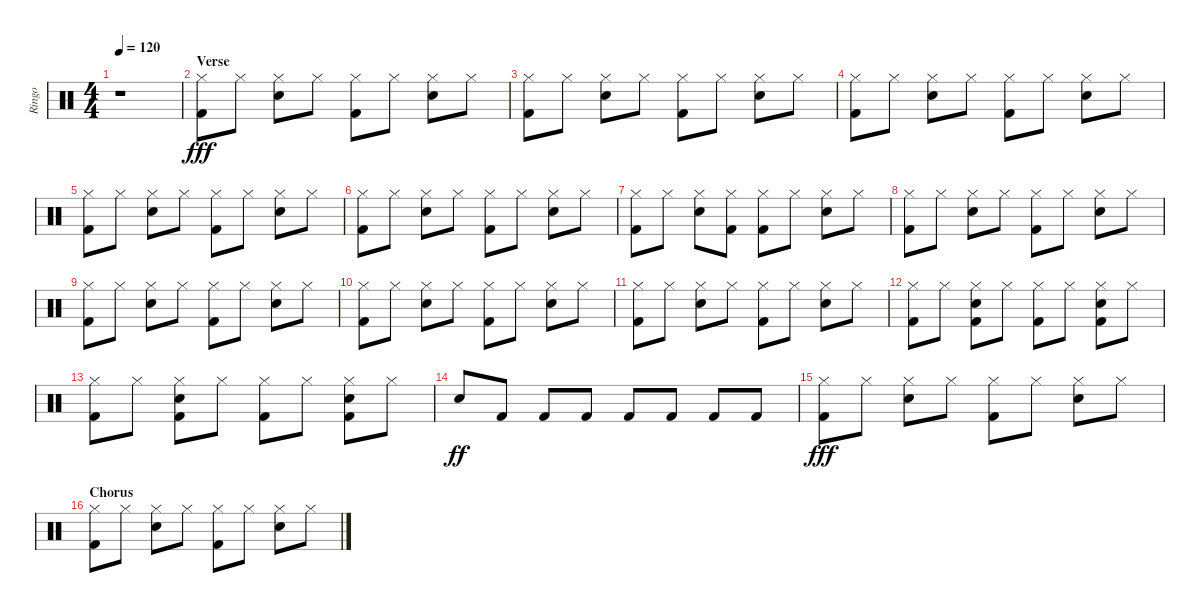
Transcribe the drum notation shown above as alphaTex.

\track ("Ringo" "Ringo") {instrument percussion}
\staff {score}
\articulation defaults
\ts (4 4)
\tempo 120
\clef neutral
\ks c
r.1{dy fff volume 13 balance 8} |
\section ("" "Verse")
("Hi-Hat (closed)" "Kick (hit) 2").8 "Hi-Hat (closed)".8 ("Hi-Hat (closed)" "Snare (hit) 2").8 "Hi-Hat (closed)".8 ("Hi-Hat (closed)" "Kick (hit) 2").8 "Hi-Hat (closed)".8 ("Hi-Hat (closed)" "Snare (hit) 2").8 "Hi-Hat (closed)".8 |
("Hi-Hat (closed)" "Kick (hit) 2").8 "Hi-Hat (closed)".8 ("Hi-Hat (closed)" "Snare (hit) 2").8 "Hi-Hat (closed)".8 ("Hi-Hat (closed)" "Kick (hit) 2").8 "Hi-Hat (closed)".8 ("Hi-Hat (closed)" "Snare (hit) 2").8 "Hi-Hat (closed)".8 |
("Hi-Hat (closed)" "Kick (hit) 2").8 "Hi-Hat (closed)".8 ("Hi-Hat (closed)" "Snare (hit) 2").8 "Hi-Hat (closed)".8 ("Hi-Hat (closed)" "Kick (hit) 2").8 "Hi-Hat (closed)".8 ("Hi-Hat (closed)" "Snare (hit) 2").8 "Hi-Hat (closed)".8 |
("Hi-Hat (closed)" "Kick (hit) 2").8 "Hi-Hat (closed)".8 ("Hi-Hat (closed)" "Snare (hit) 2").8 "Hi-Hat (closed)".8 ("Hi-Hat (closed)" "Kick (hit) 2").8 "Hi-Hat (closed)".8 ("Hi-Hat (closed)" "Snare (hit) 2").8 "Hi-Hat (closed)".8 |
("Hi-Hat (closed)" "Kick (hit) 2").8 "Hi-Hat (closed)".8 ("Hi-Hat (closed)" "Snare (hit) 2").8 "Hi-Hat (closed)".8 ("Hi-Hat (closed)" "Kick (hit) 2").8 "Hi-Hat (closed)".8 ("Hi-Hat (closed)" "Snare (hit) 2").8 "Hi-Hat (closed)".8 |
("Hi-Hat (closed)" "Kick (hit) 2").8 "Hi-Hat (closed)".8 ("Hi-Hat (closed)" "Snare (hit) 2").8 ("Hi-Hat (closed)" "Kick (hit) 2").8 ("Hi-Hat (closed)" "Kick (hit) 2").8 "Hi-Hat (closed)".8 ("Hi-Hat (closed)" "Snare (hit) 2").8 "Hi-Hat (closed)".8 |
("Hi-Hat (closed)" "Kick (hit) 2").8 "Hi-Hat (closed)".8 ("Hi-Hat (closed)" "Snare (hit) 2").8 "Hi-Hat (closed)".8 ("Hi-Hat (closed)" "Kick (hit) 2").8 "Hi-Hat (closed)".8 ("Hi-Hat (closed)" "Snare (hit) 2").8 "Hi-Hat (closed)".8 |
("Hi-Hat (closed)" "Kick (hit) 2").8 "Hi-Hat (closed)".8 ("Hi-Hat (closed)" "Snare (hit) 2").8 "Hi-Hat (closed)".8 ("Hi-Hat (closed)" "Kick (hit) 2").8 "Hi-Hat (closed)".8 ("Hi-Hat (closed)" "Snare (hit) 2").8 "Hi-Hat (closed)".8 |
("Hi-Hat (closed)" "Kick (hit) 2").8 "Hi-Hat (closed)".8 ("Hi-Hat (closed)" "Snare (hit) 2").8 "Hi-Hat (closed)".8 ("Hi-Hat (closed)" "Kick (hit) 2").8 "Hi-Hat (closed)".8 ("Hi-Hat (closed)" "Snare (hit) 2").8 "Hi-Hat (closed)".8 |
("Hi-Hat (closed)" "Kick (hit) 2").8 "Hi-Hat (closed)".8 ("Hi-Hat (closed)" "Snare (hit) 2").8 "Hi-Hat (closed)".8 ("Hi-Hat (closed)" "Kick (hit) 2").8 "Hi-Hat (closed)".8 ("Hi-Hat (closed)" "Snare (hit) 2").8 "Hi-Hat (closed)".8 |
("Hi-Hat (closed)" "Kick (hit) 2").8 "Hi-Hat (closed)".8 ("Hi-Hat (closed)" "Snare (hit) 2" "Kick (hit) 2").8 "Hi-Hat (closed)".8 ("Hi-Hat (closed)" "Kick (hit) 2").8 "Hi-Hat (closed)".8 ("Hi-Hat (closed)" "Snare (hit) 2" "Kick (hit) 2").8 "Hi-Hat (closed)".8 |
("Hi-Hat (closed)" "Kick (hit) 2").8 "Hi-Hat (closed)".8 ("Hi-Hat (closed)" "Snare (hit) 2" "Kick (hit) 2").8 "Hi-Hat (closed)".8 ("Hi-Hat (closed)" "Kick (hit) 2").8 "Hi-Hat (closed)".8 ("Hi-Hat (closed)" "Snare (hit) 2" "Kick (hit) 2").8 "Hi-Hat (closed)".8 |
"Snare (hit) 2".8{dy ff} "Kick (hit) 2".8 "Kick (hit) 2".8 "Kick (hit) 2".8 "Kick (hit) 2".8 "Kick (hit) 2".8 "Kick (hit) 2".8 "Kick (hit) 2".8 |
("Hi-Hat (closed)" "Kick (hit) 2").8{dy fff} "Hi-Hat (closed)".8 ("Hi-Hat (closed)" "Snare (hit) 2").8 "Hi-Hat (closed)".8 ("Hi-Hat (closed)" "Kick (hit) 2").8 "Hi-Hat (closed)".8 ("Hi-Hat (closed)" "Snare (hit) 2").8 "Hi-Hat (closed)".8 |
\section ("" "Chorus")
("Hi-Hat (closed)" "Kick (hit) 2").8 "Hi-Hat (closed)".8 ("Hi-Hat (closed)" "Snare (hit) 2").8 "Hi-Hat (closed)".8 ("Hi-Hat (closed)" "Kick (hit) 2").8 "Hi-Hat (closed)".8 ("Hi-Hat (closed)" "Snare (hit) 2").8 "Hi-Hat (closed)".8
